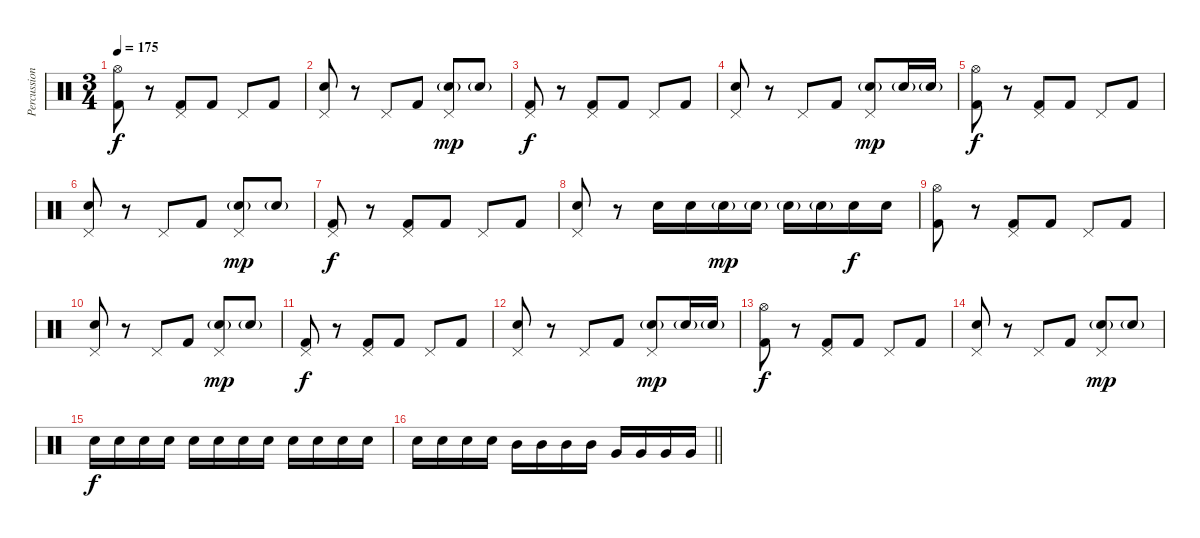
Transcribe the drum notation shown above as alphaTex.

\track ("Percussion" "Percussion") {instrument percussion}
\staff {score}
\articulation defaults
\ts (3 4)
\tempo 175
\clef neutral
\ks c
("Hi-Hat (open)" "Kick (hit) 2").8{dy f} r.8 ("Pedal Hi-Hat (hit)" "Kick (hit) 2").8 "Kick (hit) 2".8 "Pedal Hi-Hat (hit)".8 "Kick (hit) 2".8 |
("Pedal Hi-Hat (hit)" "Electric Snare (hit)").8 r.8 "Pedal Hi-Hat (hit)".8 "Kick (hit) 2".8 ("Pedal Hi-Hat (hit)" "Electric Snare (hit)"{g}).8{dy mp} "Electric Snare (hit)"{g}.8 |
("Pedal Hi-Hat (hit)" "Kick (hit) 2").8{dy f} r.8 ("Pedal Hi-Hat (hit)" "Kick (hit) 2").8 "Kick (hit) 2".8 "Pedal Hi-Hat (hit)".8 "Kick (hit) 2".8 |
("Pedal Hi-Hat (hit)" "Electric Snare (hit)").8 r.8 "Pedal Hi-Hat (hit)".8 "Kick (hit) 2".8 ("Pedal Hi-Hat (hit)" "Electric Snare (hit)"{g}).8{dy mp} "Electric Snare (hit)"{g}.16 "Electric Snare (hit)"{g}.16 |
("Hi-Hat (open)" "Kick (hit) 2").8{dy f} r.8 ("Pedal Hi-Hat (hit)" "Kick (hit) 2").8 "Kick (hit) 2".8 "Pedal Hi-Hat (hit)".8 "Kick (hit) 2".8 |
("Pedal Hi-Hat (hit)" "Electric Snare (hit)").8 r.8 "Pedal Hi-Hat (hit)".8 "Kick (hit) 2".8 ("Pedal Hi-Hat (hit)" "Electric Snare (hit)"{g}).8{dy mp} "Electric Snare (hit)"{g}.8 |
("Pedal Hi-Hat (hit)" "Kick (hit) 2").8{dy f} r.8 ("Pedal Hi-Hat (hit)" "Kick (hit) 2").8 "Kick (hit) 2".8 "Pedal Hi-Hat (hit)".8 "Kick (hit) 2".8 |
("Pedal Hi-Hat (hit)" "Electric Snare (hit)").8 r.8 "Electric Snare (hit)".16 "Electric Snare (hit)".16 "Electric Snare (hit)"{g}.16{dy mp} "Electric Snare (hit)"{g}.16 "Electric Snare (hit)"{g}.16 "Electric Snare (hit)"{g}.16 "Electric Snare (hit)".16{dy f} "Electric Snare (hit)".16 |
("Hi-Hat (open)" "Kick (hit) 2").8 r.8 ("Pedal Hi-Hat (hit)" "Kick (hit) 2").8 "Kick (hit) 2".8 "Pedal Hi-Hat (hit)".8 "Kick (hit) 2".8 |
("Pedal Hi-Hat (hit)" "Electric Snare (hit)").8 r.8 "Pedal Hi-Hat (hit)".8 "Kick (hit) 2".8 ("Pedal Hi-Hat (hit)" "Electric Snare (hit)"{g}).8{dy mp} "Electric Snare (hit)"{g}.8 |
("Pedal Hi-Hat (hit)" "Kick (hit) 2").8{dy f} r.8 ("Pedal Hi-Hat (hit)" "Kick (hit) 2").8 "Kick (hit) 2".8 "Pedal Hi-Hat (hit)".8 "Kick (hit) 2".8 |
("Pedal Hi-Hat (hit)" "Electric Snare (hit)").8 r.8 "Pedal Hi-Hat (hit)".8 "Kick (hit) 2".8 ("Pedal Hi-Hat (hit)" "Electric Snare (hit)"{g}).8{dy mp} "Electric Snare (hit)"{g}.16 "Electric Snare (hit)"{g}.16 |
("Hi-Hat (open)" "Kick (hit) 2").8{dy f} r.8 ("Pedal Hi-Hat (hit)" "Kick (hit) 2").8 "Kick (hit) 2".8 "Pedal Hi-Hat (hit)".8 "Kick (hit) 2".8 |
("Pedal Hi-Hat (hit)" "Electric Snare (hit)").8 r.8 "Pedal Hi-Hat (hit)".8 "Kick (hit) 2".8 ("Pedal Hi-Hat (hit)" "Electric Snare (hit)"{g}).8{dy mp} "Electric Snare (hit)"{g}.8 |
"Electric Snare (hit)".16{dy f} "Electric Snare (hit)".16 "Electric Snare (hit)".16 "Electric Snare (hit)".16 "Electric Snare (hit)".16 "Electric Snare (hit)".16 "Electric Snare (hit)".16 "Electric Snare (hit)".16 "Electric Snare (hit)".16 "Electric Snare (hit)".16 "Electric Snare (hit)".16 "Electric Snare (hit)".16 |
\barLineRight lightlight "Electric Snare (hit)".16 "Electric Snare (hit)".16 "Electric Snare (hit)".16 "Electric Snare (hit)".16 "Mid Tom (hit)".16 "Mid Tom (hit)".16 "Mid Tom (hit)".16 "Mid Tom (hit)".16 "Very Low Tom (hit)".16 "Very Low Tom (hit)".16 "Very Low Tom (hit)".16 "Very Low Tom (hit)".16
